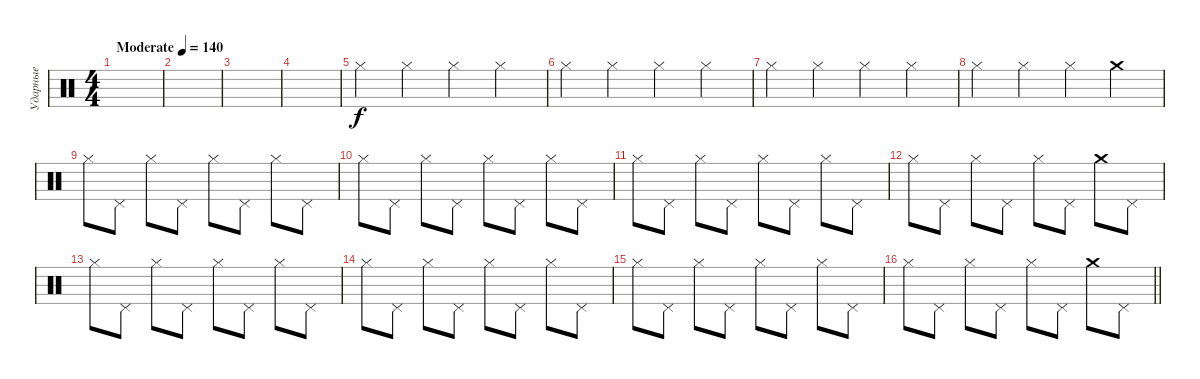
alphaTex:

\track ("Ударные" "Ударные") {instrument percussion}
\staff {score}
\articulation defaults
\ts (4 4)
\tempo (140 "Moderate")
\clef neutral
\ks c
|
|
|
|
"Hi-Hat (closed)".4 "Hi-Hat (closed)".4 "Hi-Hat (closed)".4 "Hi-Hat (closed)".4 |
"Hi-Hat (closed)".4 "Hi-Hat (closed)".4 "Hi-Hat (closed)".4 "Hi-Hat (closed)".4 |
"Hi-Hat (closed)".4 "Hi-Hat (closed)".4 "Hi-Hat (closed)".4 "Hi-Hat (closed)".4 |
"Hi-Hat (closed)".4 "Hi-Hat (closed)".4 "Hi-Hat (closed)".4 "Crash medium (hit)".4 |
"Hi-Hat (closed)".8 "Pedal Hi-Hat (hit)".8 "Hi-Hat (closed)".8 "Pedal Hi-Hat (hit)".8 "Hi-Hat (closed)".8 "Pedal Hi-Hat (hit)".8 "Hi-Hat (closed)".8 "Pedal Hi-Hat (hit)".8 |
"Hi-Hat (closed)".8 "Pedal Hi-Hat (hit)".8 "Hi-Hat (closed)".8 "Pedal Hi-Hat (hit)".8 "Hi-Hat (closed)".8 "Pedal Hi-Hat (hit)".8 "Hi-Hat (closed)".8 "Pedal Hi-Hat (hit)".8 |
"Hi-Hat (closed)".8 "Pedal Hi-Hat (hit)".8 "Hi-Hat (closed)".8 "Pedal Hi-Hat (hit)".8 "Hi-Hat (closed)".8 "Pedal Hi-Hat (hit)".8 "Hi-Hat (closed)".8 "Pedal Hi-Hat (hit)".8 |
"Hi-Hat (closed)".8 "Pedal Hi-Hat (hit)".8 "Hi-Hat (closed)".8 "Pedal Hi-Hat (hit)".8 "Hi-Hat (closed)".8 "Pedal Hi-Hat (hit)".8 "Crash medium (hit)".8 "Pedal Hi-Hat (hit)".8 |
"Hi-Hat (closed)".8 "Pedal Hi-Hat (hit)".8 "Hi-Hat (closed)".8 "Pedal Hi-Hat (hit)".8 "Hi-Hat (closed)".8 "Pedal Hi-Hat (hit)".8 "Hi-Hat (closed)".8 "Pedal Hi-Hat (hit)".8 |
"Hi-Hat (closed)".8 "Pedal Hi-Hat (hit)".8 "Hi-Hat (closed)".8 "Pedal Hi-Hat (hit)".8 "Hi-Hat (closed)".8 "Pedal Hi-Hat (hit)".8 "Hi-Hat (closed)".8 "Pedal Hi-Hat (hit)".8 |
"Hi-Hat (closed)".8 "Pedal Hi-Hat (hit)".8 "Hi-Hat (closed)".8 "Pedal Hi-Hat (hit)".8 "Hi-Hat (closed)".8 "Pedal Hi-Hat (hit)".8 "Hi-Hat (closed)".8 "Pedal Hi-Hat (hit)".8 |
\barLineRight lightlight "Hi-Hat (closed)".8 "Pedal Hi-Hat (hit)".8 "Hi-Hat (closed)".8 "Pedal Hi-Hat (hit)".8 "Hi-Hat (closed)".8 "Pedal Hi-Hat (hit)".8 "Crash medium (hit)".8 "Pedal Hi-Hat (hit)".8
